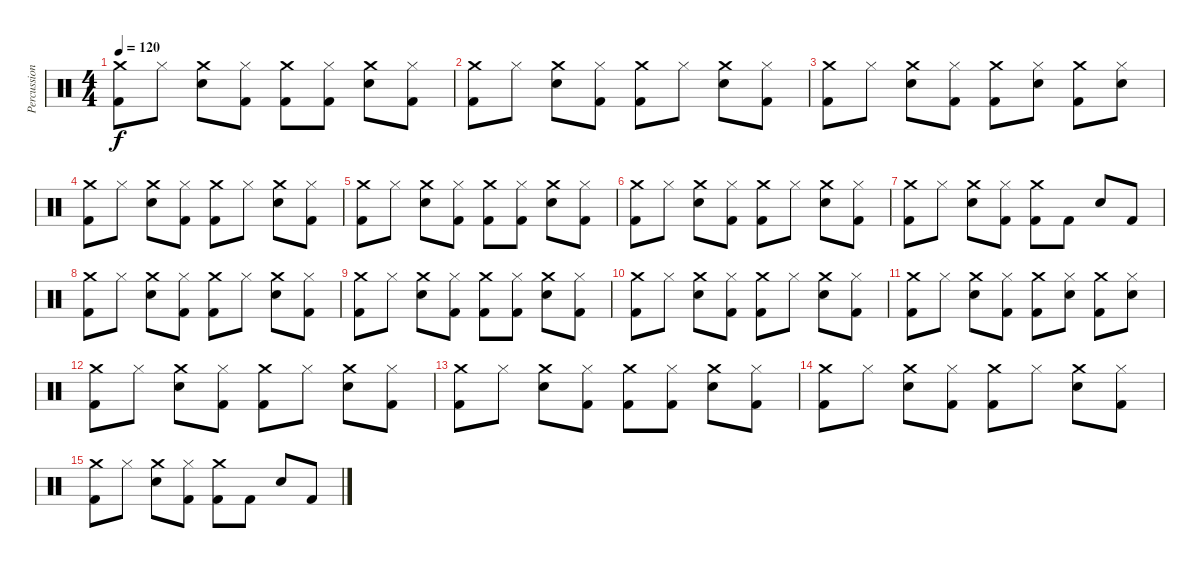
\track ("Percussion" "Percussion") {instrument percussion}
\staff {score}
\articulation defaults
\ts (4 4)
\tempo 120
\clef neutral
\ks c
("Crash medium (hit)" "Kick (hit) 2").8{dy f} "Hi-Hat (closed)".8 ("Crash medium (hit)" "Electric Snare (hit)").8 ("Hi-Hat (closed)" "Kick (hit) 2").8 ("Crash medium (hit)" "Kick (hit) 2").8 ("Hi-Hat (closed)" "Kick (hit) 2").8 ("Crash medium (hit)" "Electric Snare (hit)").8 ("Hi-Hat (closed)" "Kick (hit) 2").8 |
("Crash medium (hit)" "Kick (hit) 2").8 "Hi-Hat (closed)".8 ("Crash medium (hit)" "Electric Snare (hit)").8 ("Hi-Hat (closed)" "Kick (hit) 2").8 ("Crash medium (hit)" "Kick (hit) 2").8 "Hi-Hat (closed)".8 ("Crash medium (hit)" "Electric Snare (hit)").8 ("Hi-Hat (closed)" "Kick (hit) 2").8 |
("Crash medium (hit)" "Kick (hit) 2").8 "Hi-Hat (closed)".8 ("Crash medium (hit)" "Electric Snare (hit)").8 ("Hi-Hat (closed)" "Kick (hit) 2").8 ("Crash medium (hit)" "Kick (hit) 2").8 ("Hi-Hat (closed)" "Electric Snare (hit)").8 ("Crash medium (hit)" "Kick (hit) 2").8 ("Hi-Hat (closed)" "Electric Snare (hit)").8 |
("Crash medium (hit)" "Kick (hit) 2").8 "Hi-Hat (closed)".8 ("Crash medium (hit)" "Electric Snare (hit)").8 ("Hi-Hat (closed)" "Kick (hit) 2").8 ("Crash medium (hit)" "Kick (hit) 2").8 "Hi-Hat (closed)".8 ("Crash medium (hit)" "Electric Snare (hit)").8 ("Hi-Hat (closed)" "Kick (hit) 2").8 |
("Crash medium (hit)" "Kick (hit) 2").8 "Hi-Hat (closed)".8 ("Crash medium (hit)" "Electric Snare (hit)").8 ("Hi-Hat (closed)" "Kick (hit) 2").8 ("Crash medium (hit)" "Kick (hit) 2").8 ("Hi-Hat (closed)" "Kick (hit) 2").8 ("Crash medium (hit)" "Electric Snare (hit)").8 ("Hi-Hat (closed)" "Kick (hit) 2").8 |
("Crash medium (hit)" "Kick (hit) 2").8 "Hi-Hat (closed)".8 ("Crash medium (hit)" "Electric Snare (hit)").8 ("Hi-Hat (closed)" "Kick (hit) 2").8 ("Crash medium (hit)" "Kick (hit) 2").8 "Hi-Hat (closed)".8 ("Crash medium (hit)" "Electric Snare (hit)").8 ("Hi-Hat (closed)" "Kick (hit) 2").8 |
("Crash medium (hit)" "Kick (hit) 2").8 "Hi-Hat (closed)".8 ("Crash medium (hit)" "Electric Snare (hit)").8 ("Hi-Hat (closed)" "Kick (hit) 2").8 ("Crash medium (hit)" "Kick (hit) 2").8 "Kick (hit) 2".8 "Electric Snare (hit)".8 "Kick (hit) 2".8 |
("Crash medium (hit)" "Kick (hit) 2").8 "Hi-Hat (closed)".8 ("Crash medium (hit)" "Electric Snare (hit)").8 ("Hi-Hat (closed)" "Kick (hit) 2").8 ("Crash medium (hit)" "Kick (hit) 2").8 "Hi-Hat (closed)".8 ("Crash medium (hit)" "Electric Snare (hit)").8 ("Hi-Hat (closed)" "Kick (hit) 2").8 |
("Crash medium (hit)" "Kick (hit) 2").8 "Hi-Hat (closed)".8 ("Crash medium (hit)" "Electric Snare (hit)").8 ("Hi-Hat (closed)" "Kick (hit) 2").8 ("Crash medium (hit)" "Kick (hit) 2").8 ("Hi-Hat (closed)" "Kick (hit) 2").8 ("Crash medium (hit)" "Electric Snare (hit)").8 ("Hi-Hat (closed)" "Kick (hit) 2").8 |
("Crash medium (hit)" "Kick (hit) 2").8 "Hi-Hat (closed)".8 ("Crash medium (hit)" "Electric Snare (hit)").8 ("Hi-Hat (closed)" "Kick (hit) 2").8 ("Crash medium (hit)" "Kick (hit) 2").8 "Hi-Hat (closed)".8 ("Crash medium (hit)" "Electric Snare (hit)").8 ("Hi-Hat (closed)" "Kick (hit) 2").8 |
("Crash medium (hit)" "Kick (hit) 2").8 "Hi-Hat (closed)".8 ("Crash medium (hit)" "Electric Snare (hit)").8 ("Hi-Hat (closed)" "Kick (hit) 2").8 ("Crash medium (hit)" "Kick (hit) 2").8 ("Hi-Hat (closed)" "Electric Snare (hit)").8 ("Crash medium (hit)" "Kick (hit) 2").8 ("Hi-Hat (closed)" "Electric Snare (hit)").8 |
("Crash medium (hit)" "Kick (hit) 2").8 "Hi-Hat (closed)".8 ("Crash medium (hit)" "Electric Snare (hit)").8 ("Hi-Hat (closed)" "Kick (hit) 2").8 ("Crash medium (hit)" "Kick (hit) 2").8 "Hi-Hat (closed)".8 ("Crash medium (hit)" "Electric Snare (hit)").8 ("Hi-Hat (closed)" "Kick (hit) 2").8 |
("Crash medium (hit)" "Kick (hit) 2").8 "Hi-Hat (closed)".8 ("Crash medium (hit)" "Electric Snare (hit)").8 ("Hi-Hat (closed)" "Kick (hit) 2").8 ("Crash medium (hit)" "Kick (hit) 2").8 ("Hi-Hat (closed)" "Kick (hit) 2").8 ("Crash medium (hit)" "Electric Snare (hit)").8 ("Hi-Hat (closed)" "Kick (hit) 2").8 |
("Crash medium (hit)" "Kick (hit) 2").8 "Hi-Hat (closed)".8 ("Crash medium (hit)" "Electric Snare (hit)").8 ("Hi-Hat (closed)" "Kick (hit) 2").8 ("Crash medium (hit)" "Kick (hit) 2").8 "Hi-Hat (closed)".8 ("Crash medium (hit)" "Electric Snare (hit)").8 ("Hi-Hat (closed)" "Kick (hit) 2").8 |
("Crash medium (hit)" "Kick (hit) 2").8 "Hi-Hat (closed)".8 ("Crash medium (hit)" "Electric Snare (hit)").8 ("Hi-Hat (closed)" "Kick (hit) 2").8 ("Crash medium (hit)" "Kick (hit) 2").8 "Kick (hit) 2".8 "Electric Snare (hit)".8 "Kick (hit) 2".8
